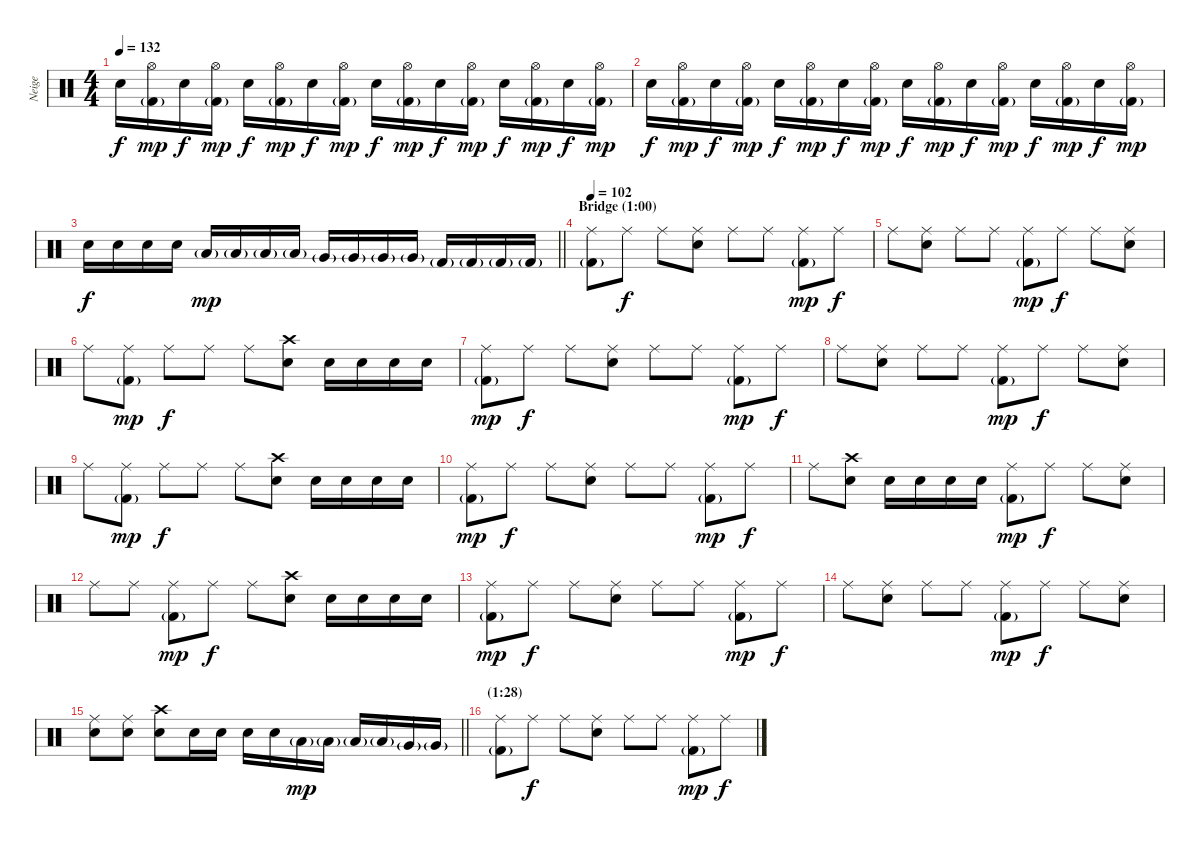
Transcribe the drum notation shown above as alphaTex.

\track ("Neige" "Neige") {instrument percussion}
\staff {score}
\articulation defaults
\ts (4 4)
\tempo 132
\clef neutral
\ks c "Snare (hit) 2".16{dy f}
("Kick (hit) 2"{g} "Hi-Hat (open)").16{dy mp} "Snare (hit) 2".16{dy f} ("Kick (hit) 2"{g} "Hi-Hat (open)").16{dy mp} "Snare (hit) 2".16{dy f} ("Kick (hit) 2"{g} "Hi-Hat (open)").16{dy mp} "Snare (hit) 2".16{dy f} ("Kick (hit) 2"{g} "Hi-Hat (open)").16{dy mp} "Snare (hit) 2".16{dy f} ("Kick (hit) 2"{g} "Hi-Hat (open)").16{dy mp} "Snare (hit) 2".16{dy f} ("Kick (hit) 2"{g} "Hi-Hat (open)").16{dy mp} "Snare (hit) 2".16{dy f} ("Kick (hit) 2"{g} "Hi-Hat (open)").16{dy mp} "Snare (hit) 2".16{dy f} ("Kick (hit) 2"{g} "Hi-Hat (open)").16{dy mp} |
"Snare (hit) 2".16{dy f} ("Kick (hit) 2"{g} "Hi-Hat (open)").16{dy mp} "Snare (hit) 2".16{dy f} ("Kick (hit) 2"{g} "Hi-Hat (open)").16{dy mp} "Snare (hit) 2".16{dy f} ("Kick (hit) 2"{g} "Hi-Hat (open)").16{dy mp} "Snare (hit) 2".16{dy f} ("Kick (hit) 2"{g} "Hi-Hat (open)").16{dy mp} "Snare (hit) 2".16{dy f} ("Kick (hit) 2"{g} "Hi-Hat (open)").16{dy mp} "Snare (hit) 2".16{dy f} ("Kick (hit) 2"{g} "Hi-Hat (open)").16{dy mp} "Snare (hit) 2".16{dy f} ("Kick (hit) 2"{g} "Hi-Hat (open)").16{dy mp} "Snare (hit) 2".16{dy f} ("Kick (hit) 2"{g} "Hi-Hat (open)").16{dy mp} |
\barLineRight lightlight "Snare (hit) 2".16{dy f} "Snare (hit) 2".16 "Snare (hit) 2".16 "Snare (hit) 2".16 "Low Tom (hit)"{g}.16{dy mp} "Low Tom (hit)"{g}.16 "Low Tom (hit)"{g}.16 "Low Tom (hit)"{g}.16 "Very Low Tom (hit)"{g}.16 "Very Low Tom (hit)"{g}.16 "Very Low Tom (hit)"{g}.16 "Very Low Tom (hit)"{g}.16 "Kick (hit) 2"{g}.16 "Kick (hit) 2"{g}.16 "Kick (hit) 2"{g}.16 "Kick (hit) 2"{g}.16
|
\section ("" "Bridge (1:00)")
\tempo 102
("Kick (hit) 2"{g} "Ride (middle)").8 "Ride (middle)".8{dy f} "Ride (middle)".8 ("Snare (hit) 2" "Ride (middle)").8 "Ride (middle)".8 "Ride (middle)".8 ("Kick (hit) 2"{g} "Ride (middle)").8{dy mp} "Ride (middle)".8{dy f} |
"Ride (middle)".8 ("Snare (hit) 2" "Ride (middle)").8 "Ride (middle)".8 "Ride (middle)".8 ("Kick (hit) 2"{g} "Ride (middle)").8{dy mp} "Ride (middle)".8{dy f} "Ride (middle)".8 ("Snare (hit) 2" "Ride (middle)").8 |
"Ride (middle)".8 ("Kick (hit) 2"{g} "Ride (middle)").8{dy mp} "Ride (middle)".8{dy f} "Ride (middle)".8 "Ride (middle)".8 ("Snare (hit) 2" "Crash high (hit)").8 "Snare (hit) 2".16 "Snare (hit) 2".16 "Snare (hit) 2".16 "Snare (hit) 2".16 |
("Kick (hit) 2"{g} "Ride (middle)").8{dy mp} "Ride (middle)".8{dy f} "Ride (middle)".8 ("Snare (hit) 2" "Ride (middle)").8 "Ride (middle)".8 "Ride (middle)".8 ("Kick (hit) 2"{g} "Ride (middle)").8{dy mp} "Ride (middle)".8{dy f} |
"Ride (middle)".8 ("Snare (hit) 2" "Ride (middle)").8 "Ride (middle)".8 "Ride (middle)".8 ("Kick (hit) 2"{g} "Ride (middle)").8{dy mp} "Ride (middle)".8{dy f} "Ride (middle)".8 ("Snare (hit) 2" "Ride (middle)").8 |
"Ride (middle)".8 ("Kick (hit) 2"{g} "Ride (middle)").8{dy mp} "Ride (middle)".8{dy f} "Ride (middle)".8 "Ride (middle)".8 ("Snare (hit) 2" "Crash high (hit)").8 "Snare (hit) 2".16 "Snare (hit) 2".16 "Snare (hit) 2".16 "Snare (hit) 2".16 |
("Kick (hit) 2"{g} "Ride (middle)").8{dy mp} "Ride (middle)".8{dy f} "Ride (middle)".8 ("Snare (hit) 2" "Ride (middle)").8 "Ride (middle)".8 "Ride (middle)".8 ("Kick (hit) 2"{g} "Ride (middle)").8{dy mp} "Ride (middle)".8{dy f} |
"Ride (middle)".8 ("Snare (hit) 2" "Crash high (hit)").8 "Snare (hit) 2".16 "Snare (hit) 2".16 "Snare (hit) 2".16 "Snare (hit) 2".16 ("Kick (hit) 2"{g} "Ride (middle)").8{dy mp} "Ride (middle)".8{dy f} "Ride (middle)".8 ("Snare (hit) 2" "Ride (middle)").8 |
"Ride (middle)".8 "Ride (middle)".8 ("Kick (hit) 2"{g} "Ride (middle)").8{dy mp} "Ride (middle)".8{dy f} "Ride (middle)".8 ("Snare (hit) 2" "Crash high (hit)").8 "Snare (hit) 2".16 "Snare (hit) 2".16 "Snare (hit) 2".16 "Snare (hit) 2".16 |
("Kick (hit) 2"{g} "Ride (middle)").8{dy mp} "Ride (middle)".8{dy f} "Ride (middle)".8 ("Snare (hit) 2" "Ride (middle)").8 "Ride (middle)".8 "Ride (middle)".8 ("Kick (hit) 2"{g} "Ride (middle)").8{dy mp} "Ride (middle)".8{dy f} |
"Ride (middle)".8 ("Snare (hit) 2" "Ride (middle)").8 "Ride (middle)".8 "Ride (middle)".8 ("Kick (hit) 2"{g} "Ride (middle)").8{dy mp} "Ride (middle)".8{dy f} "Ride (middle)".8 ("Snare (hit) 2" "Ride (middle)").8 |
\barLineRight lightlight
("Snare (hit) 2" "Ride (middle)").8 ("Snare (hit) 2" "Ride (middle)").8 ("Snare (hit) 2" "Crash high (hit)").8 "Snare (hit) 2".16 "Snare (hit) 2".16 "Snare (hit) 2".16 "Snare (hit) 2".16 "Low Tom (hit)"{g}.16{dy mp} "Low Tom (hit)"{g}.16 "Low Tom (hit)"{g}.16 "Low Tom (hit)"{g}.16 "Very Low Tom (hit)"{g}.16 "Very Low Tom (hit)"{g}.16 |
\section ("" "(1:28)")
("Kick (hit) 2"{g} "Ride (middle)").8 "Ride (middle)".8{dy f} "Ride (middle)".8 ("Snare (hit) 2" "Ride (middle)").8 "Ride (middle)".8 "Ride (middle)".8 ("Kick (hit) 2"{g} "Ride (middle)").8{dy mp} "Ride (middle)".8{dy f}
